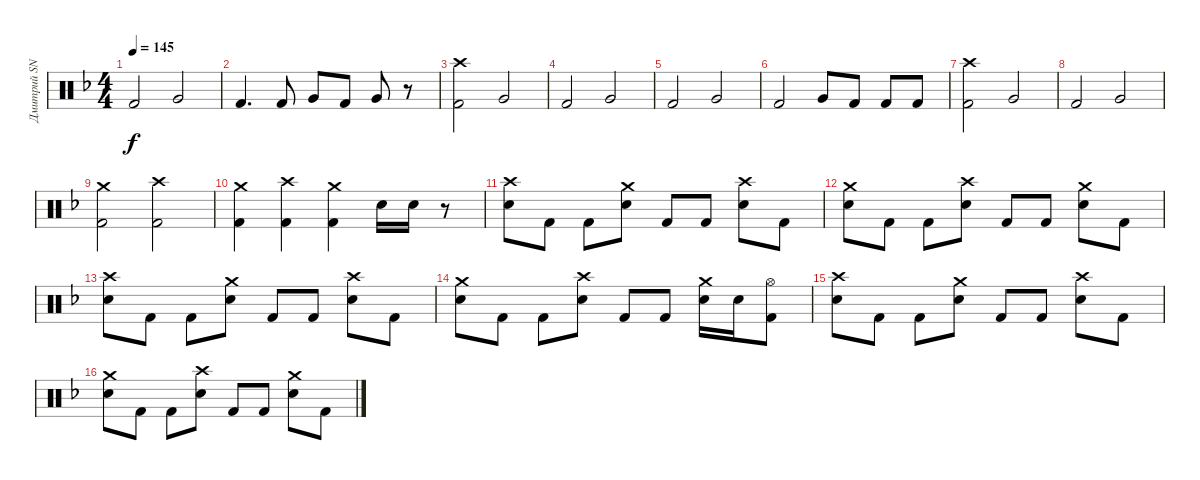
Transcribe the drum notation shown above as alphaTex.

\track ("Дмитрий SNAKE Хакимов" "Дмитрий SN") {instrument percussion}
\staff {score}
\articulation defaults
\ts (4 4)
\tempo 145
\clef neutral
\ks f "Kick (hit) 2".2{dy f} "Very Low Tom (hit)".2
|
"Kick (hit) 2".4{d} "Kick (hit) 2".8 "Very Low Tom (hit)".8 "Kick (hit) 2".8 "Very Low Tom (hit)".8 r.8 |
("Crash high (hit)" "Kick (hit) 2").2 "Very Low Tom (hit)".2 |
"Kick (hit) 2".2 "Very Low Tom (hit)".2 |
"Kick (hit) 2".2 "Very Low Tom (hit)".2 |
"Kick (hit) 2".2 "Very Low Tom (hit)".8 "Kick (hit) 2".8 "Kick (hit) 2".8 "Kick (hit) 2".8 |
("Crash high (hit)" "Kick (hit) 2").2 "Very Low Tom (hit)".2 |
"Kick (hit) 2".2 "Very Low Tom (hit)".2 |
("Crash medium (hit)" "Kick (hit) 2").2 ("Crash high (hit)" "Kick (hit) 2").2 |
("Crash medium (hit)" "Kick (hit) 2").4 ("Crash high (hit)" "Kick (hit) 2").4 ("Crash medium (hit)" "Kick (hit) 2").4 "Snare (hit) 2".16 "Snare (hit) 2".16 r.8 |
("Crash high (hit)" "Snare (hit) 2").8 "Kick (hit) 2".8 "Kick (hit) 2".8 ("Crash medium (hit)" "Snare (hit) 2").8 "Kick (hit) 2".8 "Kick (hit) 2".8 ("Crash high (hit)" "Snare (hit) 2").8 "Kick (hit) 2".8 |
("Crash medium (hit)" "Snare (hit) 2").8 "Kick (hit) 2".8 "Kick (hit) 2".8 ("Crash high (hit)" "Snare (hit) 2").8 "Kick (hit) 2".8 "Kick (hit) 2".8 ("Crash medium (hit)" "Snare (hit) 2").8 "Kick (hit) 2".8 |
("Crash high (hit)" "Snare (hit) 2").8 "Kick (hit) 2".8 "Kick (hit) 2".8 ("Crash medium (hit)" "Snare (hit) 2").8 "Kick (hit) 2".8 "Kick (hit) 2".8 ("Crash high (hit)" "Snare (hit) 2").8 "Kick (hit) 2".8 |
("Crash medium (hit)" "Snare (hit) 2").8 "Kick (hit) 2".8 "Kick (hit) 2".8 ("Crash high (hit)" "Snare (hit) 2").8 "Kick (hit) 2".8 "Kick (hit) 2".8 ("Crash medium (hit)" "Snare (hit) 2").16 "Snare (hit) 2".16 ("Hi-Hat (open)" "Kick (hit) 2").8 |
("Crash high (hit)" "Snare (hit) 2").8 "Kick (hit) 2".8 "Kick (hit) 2".8 ("Crash medium (hit)" "Snare (hit) 2").8 "Kick (hit) 2".8 "Kick (hit) 2".8 ("Crash high (hit)" "Snare (hit) 2").8 "Kick (hit) 2".8 |
("Crash medium (hit)" "Snare (hit) 2").8 "Kick (hit) 2".8 "Kick (hit) 2".8 ("Crash high (hit)" "Snare (hit) 2").8 "Kick (hit) 2".8 "Kick (hit) 2".8 ("Crash medium (hit)" "Snare (hit) 2").8 "Kick (hit) 2".8
